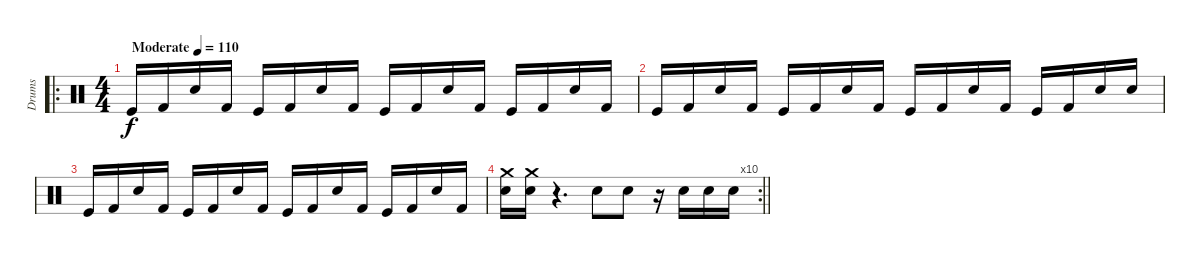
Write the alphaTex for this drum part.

\track ("Drums" "Drums") {instrument percussion}
\staff {score}
\articulation defaults
\ro
\ts (4 4)
\tempo (110 "Moderate")
\clef neutral
\ks c "Kick (hit)".16{dy f} "Kick (hit) 2".16 "Snare (hit) 2".16 "Kick (hit) 2".16 "Kick (hit)".16 "Kick (hit) 2".16 "Snare (hit) 2".16 "Kick (hit) 2".16 "Kick (hit)".16 "Kick (hit) 2".16 "Snare (hit) 2".16 "Kick (hit) 2".16 "Kick (hit)".16 "Kick (hit) 2".16 "Snare (hit) 2".16 "Kick (hit) 2".16
|
"Kick (hit)".16 "Kick (hit) 2".16 "Snare (hit) 2".16 "Kick (hit) 2".16 "Kick (hit)".16 "Kick (hit) 2".16 "Snare (hit) 2".16 "Kick (hit) 2".16 "Kick (hit)".16 "Kick (hit) 2".16 "Snare (hit) 2".16 "Kick (hit) 2".16 "Kick (hit)".16 "Kick (hit) 2".16 "Snare (hit) 2".16 "Snare (hit) 2".16 |
"Kick (hit)".16 "Kick (hit) 2".16 "Snare (hit) 2".16 "Kick (hit) 2".16 "Kick (hit)".16 "Kick (hit) 2".16 "Snare (hit) 2".16 "Kick (hit) 2".16 "Kick (hit)".16 "Kick (hit) 2".16 "Snare (hit) 2".16 "Kick (hit) 2".16 "Kick (hit)".16 "Kick (hit) 2".16 "Snare (hit) 2".16 "Kick (hit) 2".16 |
\rc 10
\barLineRight lightlight
("Crash medium (hit)" "Snare (hit) 2").16 ("Crash medium (hit)" "Snare (hit) 2").16 r.4{d} "Snare (hit) 2".8 "Snare (hit) 2".8 r.16 "Snare (hit) 2".16 "Snare (hit) 2".16 "Snare (hit) 2".16
